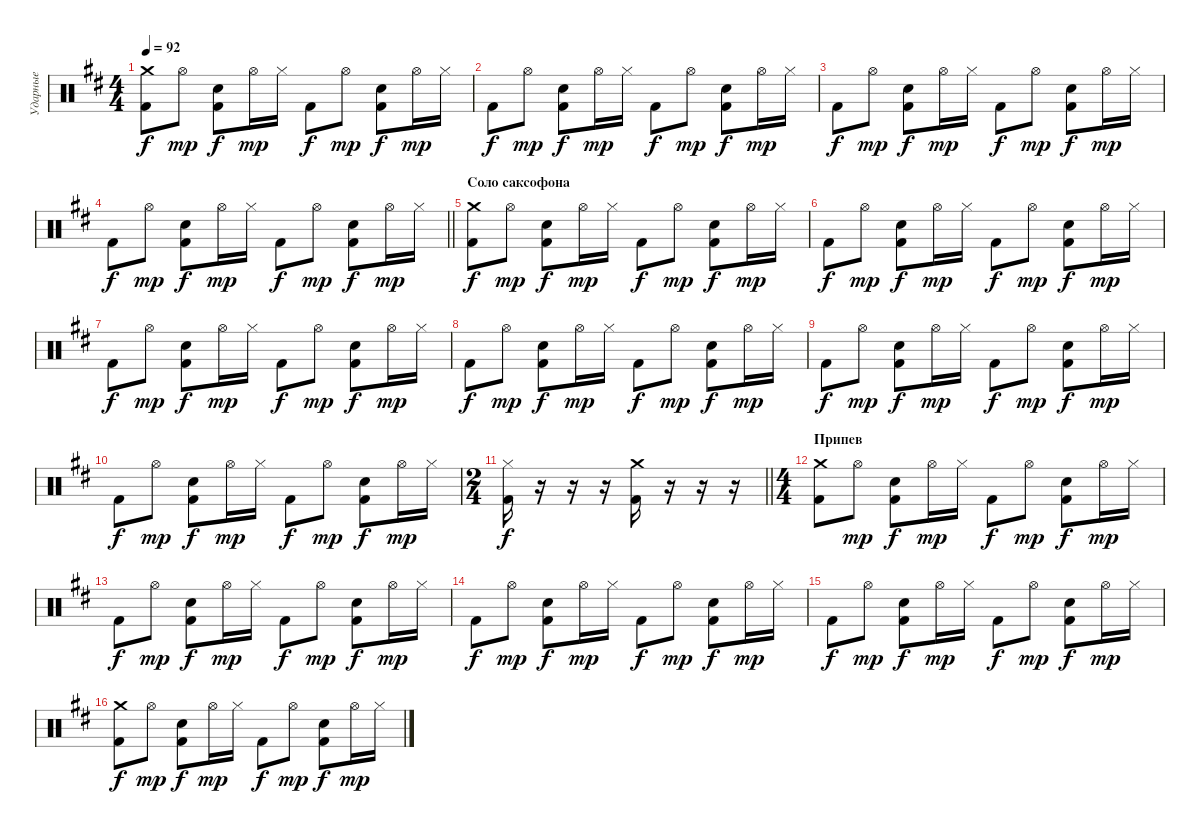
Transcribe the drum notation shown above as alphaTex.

\track ("Ударные" "Ударные") {instrument percussion}
\staff {score}
\articulation defaults
\ts (4 4)
\tempo 92
\clef neutral
\ks bminor
("Crash medium (hit)" "Kick (hit) 2").8{dy f} "Hi-Hat (open)".8{dy mp} ("Electric Snare (hit)" "Kick (hit) 2").8{dy f} "Hi-Hat (open)".16{dy mp} "Hi-Hat (closed)".16 "Kick (hit) 2".8{dy f} "Hi-Hat (open)".8{dy mp} ("Electric Snare (hit)" "Kick (hit) 2").8{dy f} "Hi-Hat (open)".16{dy mp} "Hi-Hat (closed)".16 |
"Kick (hit) 2".8{dy f} "Hi-Hat (open)".8{dy mp} ("Electric Snare (hit)" "Kick (hit) 2").8{dy f} "Hi-Hat (open)".16{dy mp} "Hi-Hat (closed)".16 "Kick (hit) 2".8{dy f} "Hi-Hat (open)".8{dy mp} ("Electric Snare (hit)" "Kick (hit) 2").8{dy f} "Hi-Hat (open)".16{dy mp} "Hi-Hat (closed)".16 |
"Kick (hit) 2".8{dy f} "Hi-Hat (open)".8{dy mp} ("Electric Snare (hit)" "Kick (hit) 2").8{dy f} "Hi-Hat (open)".16{dy mp} "Hi-Hat (closed)".16 "Kick (hit) 2".8{dy f} "Hi-Hat (open)".8{dy mp} ("Electric Snare (hit)" "Kick (hit) 2").8{dy f} "Hi-Hat (open)".16{dy mp} "Hi-Hat (closed)".16 |
\barLineRight lightlight "Kick (hit) 2".8{dy f} "Hi-Hat (open)".8{dy mp}
("Electric Snare (hit)" "Kick (hit) 2").8{dy f} "Hi-Hat (open)".16{dy mp} "Hi-Hat (closed)".16 "Kick (hit) 2".8{dy f} "Hi-Hat (open)".8{dy mp} ("Electric Snare (hit)" "Kick (hit) 2").8{dy f} "Hi-Hat (open)".16{dy mp} "Hi-Hat (closed)".16 |
\section ("" "Соло саксофона")
("Crash medium (hit)" "Kick (hit) 2").8{dy f} "Hi-Hat (open)".8{dy mp} ("Electric Snare (hit)" "Kick (hit) 2").8{dy f} "Hi-Hat (open)".16{dy mp} "Hi-Hat (closed)".16 "Kick (hit) 2".8{dy f} "Hi-Hat (open)".8{dy mp} ("Electric Snare (hit)" "Kick (hit) 2").8{dy f} "Hi-Hat (open)".16{dy mp} "Hi-Hat (closed)".16 |
"Kick (hit) 2".8{dy f} "Hi-Hat (open)".8{dy mp} ("Electric Snare (hit)" "Kick (hit) 2").8{dy f} "Hi-Hat (open)".16{dy mp} "Hi-Hat (closed)".16 "Kick (hit) 2".8{dy f} "Hi-Hat (open)".8{dy mp} ("Electric Snare (hit)" "Kick (hit) 2").8{dy f} "Hi-Hat (open)".16{dy mp} "Hi-Hat (closed)".16 |
"Kick (hit) 2".8{dy f} "Hi-Hat (open)".8{dy mp} ("Electric Snare (hit)" "Kick (hit) 2").8{dy f} "Hi-Hat (open)".16{dy mp} "Hi-Hat (closed)".16 "Kick (hit) 2".8{dy f} "Hi-Hat (open)".8{dy mp} ("Electric Snare (hit)" "Kick (hit) 2").8{dy f} "Hi-Hat (open)".16{dy mp} "Hi-Hat (closed)".16 |
"Kick (hit) 2".8{dy f} "Hi-Hat (open)".8{dy mp} ("Electric Snare (hit)" "Kick (hit) 2").8{dy f} "Hi-Hat (open)".16{dy mp} "Hi-Hat (closed)".16 "Kick (hit) 2".8{dy f} "Hi-Hat (open)".8{dy mp} ("Electric Snare (hit)" "Kick (hit) 2").8{dy f} "Hi-Hat (open)".16{dy mp} "Hi-Hat (closed)".16 |
"Kick (hit) 2".8{dy f} "Hi-Hat (open)".8{dy mp} ("Electric Snare (hit)" "Kick (hit) 2").8{dy f} "Hi-Hat (open)".16{dy mp} "Hi-Hat (closed)".16 "Kick (hit) 2".8{dy f} "Hi-Hat (open)".8{dy mp} ("Electric Snare (hit)" "Kick (hit) 2").8{dy f} "Hi-Hat (open)".16{dy mp} "Hi-Hat (closed)".16 |
"Kick (hit) 2".8{dy f} "Hi-Hat (open)".8{dy mp} ("Electric Snare (hit)" "Kick (hit) 2").8{dy f} "Hi-Hat (open)".16{dy mp} "Hi-Hat (closed)".16 "Kick (hit) 2".8{dy f} "Hi-Hat (open)".8{dy mp} ("Electric Snare (hit)" "Kick (hit) 2").8{dy f} "Hi-Hat (open)".16{dy mp} "Hi-Hat (closed)".16 |
\ts (2 4)
\barLineRight lightlight
("Hi-Hat (closed)" "Kick (hit) 2").16{dy f} r.16 r.16 r.16 ("Crash medium (hit)" "Kick (hit) 2").16 r.16 r.16 r.16 |
\ts (4 4)
\section ("" "Припев")
("Crash medium (hit)" "Kick (hit) 2").8 "Hi-Hat (open)".8{dy mp} ("Electric Snare (hit)" "Kick (hit) 2").8{dy f} "Hi-Hat (open)".16{dy mp} "Hi-Hat (closed)".16 "Kick (hit) 2".8{dy f} "Hi-Hat (open)".8{dy mp} ("Electric Snare (hit)" "Kick (hit) 2").8{dy f} "Hi-Hat (open)".16{dy mp} "Hi-Hat (closed)".16 |
"Kick (hit) 2".8{dy f} "Hi-Hat (open)".8{dy mp} ("Electric Snare (hit)" "Kick (hit) 2").8{dy f} "Hi-Hat (open)".16{dy mp} "Hi-Hat (closed)".16 "Kick (hit) 2".8{dy f} "Hi-Hat (open)".8{dy mp} ("Electric Snare (hit)" "Kick (hit) 2").8{dy f} "Hi-Hat (open)".16{dy mp} "Hi-Hat (closed)".16 |
"Kick (hit) 2".8{dy f} "Hi-Hat (open)".8{dy mp} ("Electric Snare (hit)" "Kick (hit) 2").8{dy f} "Hi-Hat (open)".16{dy mp} "Hi-Hat (closed)".16 "Kick (hit) 2".8{dy f} "Hi-Hat (open)".8{dy mp} ("Electric Snare (hit)" "Kick (hit) 2").8{dy f} "Hi-Hat (open)".16{dy mp} "Hi-Hat (closed)".16 |
"Kick (hit) 2".8{dy f} "Hi-Hat (open)".8{dy mp} ("Electric Snare (hit)" "Kick (hit) 2").8{dy f} "Hi-Hat (open)".16{dy mp} "Hi-Hat (closed)".16 "Kick (hit) 2".8{dy f} "Hi-Hat (open)".8{dy mp} ("Electric Snare (hit)" "Kick (hit) 2").8{dy f} "Hi-Hat (open)".16{dy mp} "Hi-Hat (closed)".16 |
("Crash medium (hit)" "Kick (hit) 2").8{dy f} "Hi-Hat (open)".8{dy mp} ("Electric Snare (hit)" "Kick (hit) 2").8{dy f} "Hi-Hat (open)".16{dy mp} "Hi-Hat (closed)".16 "Kick (hit) 2".8{dy f} "Hi-Hat (open)".8{dy mp} ("Electric Snare (hit)" "Kick (hit) 2").8{dy f} "Hi-Hat (open)".16{dy mp} "Hi-Hat (closed)".16
